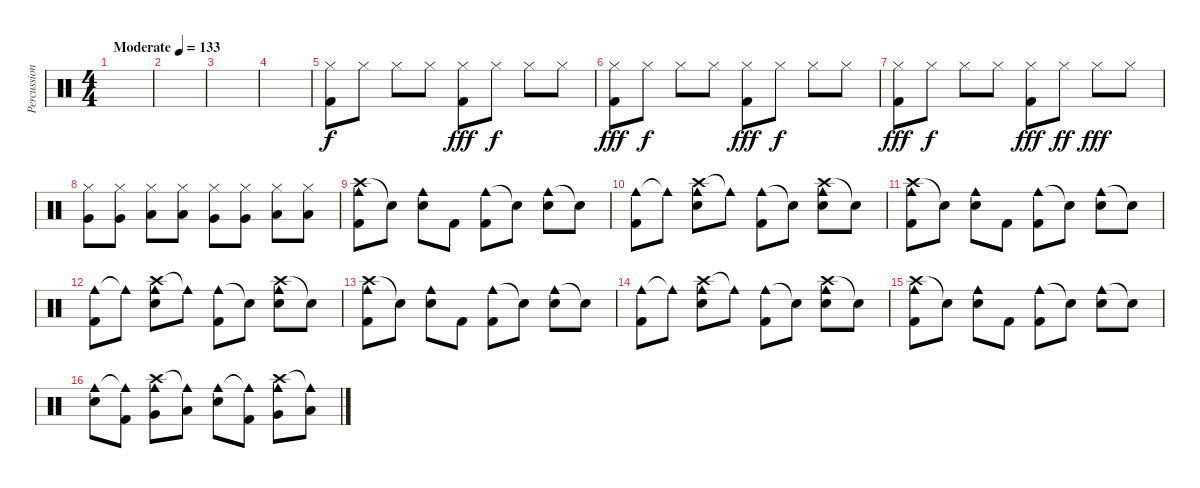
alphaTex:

\track ("Percussion" "Percussion") {instrument percussion}
\staff {score}
\articulation defaults
\ts (4 4)
\tempo (133 "Moderate")
\clef neutral
\ks c
|
|
|
|
("Hi-Hat (closed)" "Kick (hit) 2").8 "Hi-Hat (closed)".8{dy f} "Hi-Hat (closed)".8 "Hi-Hat (closed)".8 ("Hi-Hat (closed)" "Kick (hit) 2").8{dy fff} "Hi-Hat (closed)".8{dy f} "Hi-Hat (closed)".8 "Hi-Hat (closed)".8 |
("Hi-Hat (closed)" "Kick (hit) 2").8{dy fff} "Hi-Hat (closed)".8{dy f} "Hi-Hat (closed)".8 "Hi-Hat (closed)".8 ("Hi-Hat (closed)" "Kick (hit) 2").8{dy fff} "Hi-Hat (closed)".8{dy f} "Hi-Hat (closed)".8 "Hi-Hat (closed)".8 |
("Hi-Hat (closed)" "Kick (hit) 2").8{dy fff} "Hi-Hat (closed)".8{dy f} "Hi-Hat (closed)".8 "Hi-Hat (closed)".8 ("Hi-Hat (closed)" "Kick (hit) 2").8{dy fff} "Hi-Hat (closed)".8{dy ff} "Hi-Hat (closed)".8{dy fff} "Hi-Hat (closed)".8 |
("Hi-Hat (closed)" "Very Low Tom (hit)").8 ("Hi-Hat (closed)" "Very Low Tom (hit)").8 ("Hi-Hat (closed)" "Low Floor Tom (hit)").8 ("Hi-Hat (closed)" "Low Floor Tom (hit)").8 ("Hi-Hat (closed)" "Very Low Tom (hit)").8 ("Hi-Hat (closed)" "Very Low Tom (hit)").8 ("Hi-Hat (closed)" "Low Floor Tom (hit)").8 ("Hi-Hat (closed)" "Low Floor Tom (hit)").8 |
("Crash high (hit)" "Cowbell medium (hit)" "Kick (hit) 2").8 "Snare (hit)"{t}.8 ("Cowbell medium (hit)" "Electric Snare (hit)").8 "Kick (hit) 2".8 ("Cowbell medium (hit)" "Kick (hit) 2").8 "Snare (hit)"{t}.8 ("Cowbell medium (hit)" "Electric Snare (hit)").8 "Snare (hit)"{t}.8 |
("Cowbell medium (hit)" "Kick (hit) 2").8 "Cowbell medium (hit)"{t}.8 ("Crash high (hit)" "Cowbell medium (hit)" "Electric Snare (hit)").8 "Cowbell medium (hit)"{t}.8 ("Cowbell medium (hit)" "Kick (hit) 2").8 "Snare (hit)"{t}.8 ("Crash high (hit)" "Cowbell medium (hit)" "Electric Snare (hit)").8 "Snare (hit)"{t}.8 |
("Crash high (hit)" "Cowbell medium (hit)" "Kick (hit) 2").8 "Snare (hit)"{t}.8 ("Cowbell medium (hit)" "Electric Snare (hit)").8 "Kick (hit) 2".8 ("Cowbell medium (hit)" "Kick (hit) 2").8 "Snare (hit)"{t}.8 ("Cowbell medium (hit)" "Electric Snare (hit)").8 "Snare (hit)"{t}.8 |
("Cowbell medium (hit)" "Kick (hit) 2").8 "Cowbell medium (hit)"{t}.8 ("Crash high (hit)" "Cowbell medium (hit)" "Electric Snare (hit)").8 "Cowbell medium (hit)"{t}.8 ("Cowbell medium (hit)" "Kick (hit) 2").8 "Snare (hit)"{t}.8 ("Crash high (hit)" "Cowbell medium (hit)" "Electric Snare (hit)").8 "Snare (hit)"{t}.8 |
("Crash high (hit)" "Cowbell medium (hit)" "Kick (hit) 2").8 "Snare (hit)"{t}.8 ("Cowbell medium (hit)" "Electric Snare (hit)").8 "Kick (hit) 2".8 ("Cowbell medium (hit)" "Kick (hit) 2").8 "Snare (hit)"{t}.8 ("Cowbell medium (hit)" "Electric Snare (hit)").8 "Snare (hit)"{t}.8 |
("Cowbell medium (hit)" "Kick (hit) 2").8 "Cowbell medium (hit)"{t}.8 ("Crash high (hit)" "Cowbell medium (hit)" "Electric Snare (hit)").8 "Cowbell medium (hit)"{t}.8 ("Cowbell medium (hit)" "Kick (hit) 2").8 "Snare (hit)"{t}.8 ("Crash high (hit)" "Cowbell medium (hit)" "Electric Snare (hit)").8 "Snare (hit)"{t}.8 |
("Crash high (hit)" "Cowbell medium (hit)" "Kick (hit) 2").8 "Snare (hit)"{t}.8 ("Cowbell medium (hit)" "Electric Snare (hit)").8 "Kick (hit) 2".8 ("Cowbell medium (hit)" "Kick (hit) 2").8 "Snare (hit)"{t}.8 ("Cowbell medium (hit)" "Electric Snare (hit)").8 "Snare (hit)"{t}.8 |
("Cowbell medium (hit)" "Electric Snare (hit)").8 ("Cowbell medium (hit)"{t} "Kick (hit) 2").8 ("Crash high (hit)" "Cowbell medium (hit)" "Very Low Tom (hit)").8 ("Cowbell medium (hit)"{t} "Low Floor Tom (hit)").8 ("Cowbell medium (hit)" "Electric Snare (hit)").8 ("Cowbell medium (hit)"{t} "Kick (hit) 2").8 ("Crash high (hit)" "Cowbell medium (hit)" "Very Low Tom (hit)").8 ("Cowbell medium (hit)"{t} "Low Floor Tom (hit)").8
